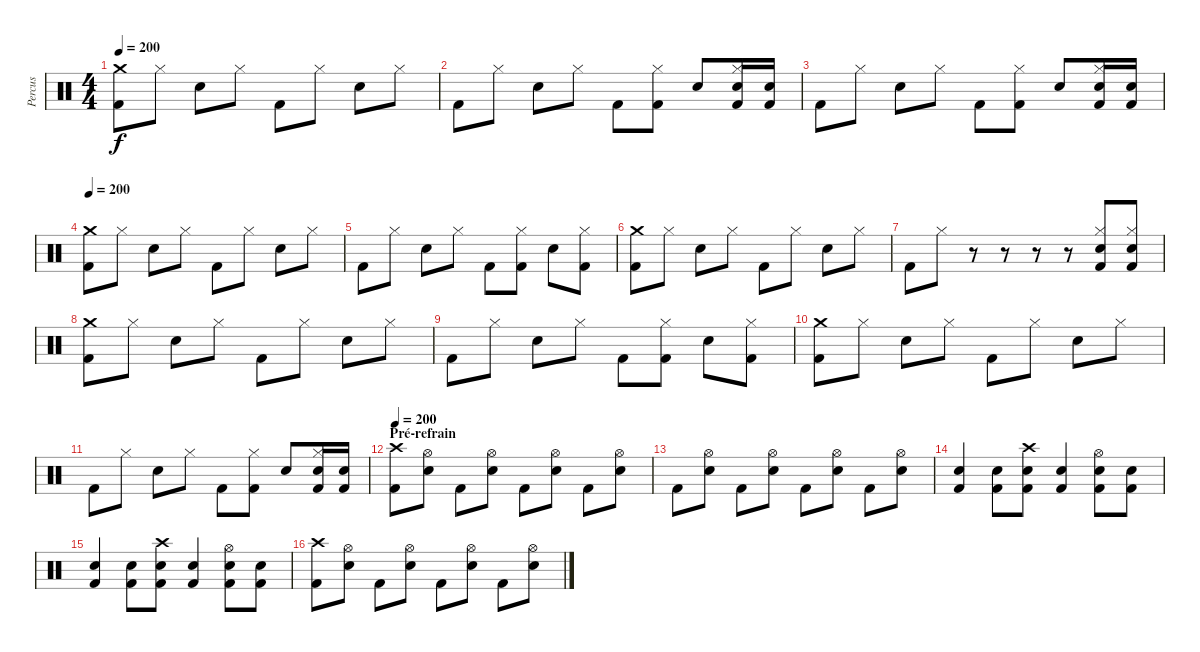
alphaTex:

\track ("Percus" "Percus") {instrument percussion}
\staff {score}
\articulation defaults
\ts (4 4)
\tempo 200
\clef neutral
\ks c
("Crash medium (hit)" "Kick (hit) 2").8{dy f} "Hi-Hat (closed)".8 "Snare (hit) 2".8 "Hi-Hat (closed)".8 "Kick (hit) 2".8 "Hi-Hat (closed)".8 "Snare (hit) 2".8 "Hi-Hat (closed)".8 |
"Kick (hit) 2".8 "Hi-Hat (closed)".8 "Snare (hit) 2".8 "Hi-Hat (closed)".8 "Kick (hit) 2".8 ("Hi-Hat (closed)" "Kick (hit) 2").8 "Snare (hit) 2".8 ("Hi-Hat (closed)" "Snare (hit) 2" "Kick (hit) 2").16 ("Snare (hit) 2" "Kick (hit) 2").16 |
"Kick (hit) 2".8 "Hi-Hat (closed)".8 "Snare (hit) 2".8 "Hi-Hat (closed)".8 "Kick (hit) 2".8 ("Hi-Hat (closed)" "Kick (hit) 2").8 "Snare (hit) 2".8 ("Hi-Hat (closed)" "Snare (hit) 2" "Kick (hit) 2").16 ("Snare (hit) 2" "Kick (hit) 2").16 |
\tempo 200
("Crash medium (hit)" "Kick (hit) 2").8 "Hi-Hat (closed)".8 "Snare (hit) 2".8 "Hi-Hat (closed)".8 "Kick (hit) 2".8 "Hi-Hat (closed)".8 "Snare (hit) 2".8 "Hi-Hat (closed)".8 |
"Kick (hit) 2".8 "Hi-Hat (closed)".8 "Snare (hit) 2".8 "Hi-Hat (closed)".8 "Kick (hit) 2".8 ("Hi-Hat (closed)" "Kick (hit) 2").8 "Snare (hit) 2".8 ("Hi-Hat (closed)" "Kick (hit) 2").8 |
("Crash medium (hit)" "Kick (hit) 2").8 "Hi-Hat (closed)".8 "Snare (hit) 2".8 "Hi-Hat (closed)".8 "Kick (hit) 2".8 "Hi-Hat (closed)".8 "Snare (hit) 2".8 "Hi-Hat (closed)".8 |
"Kick (hit) 2".8 "Hi-Hat (closed)".8 r.8 r.8 r.8 r.8 ("Hi-Hat (closed)" "Snare (hit) 2" "Kick (hit) 2").8 ("Hi-Hat (closed)" "Snare (hit) 2" "Kick (hit) 2").8 |
("Crash medium (hit)" "Kick (hit) 2").8 "Hi-Hat (closed)".8 "Snare (hit) 2".8 "Hi-Hat (closed)".8 "Kick (hit) 2".8 "Hi-Hat (closed)".8 "Snare (hit) 2".8 "Hi-Hat (closed)".8 |
"Kick (hit) 2".8 "Hi-Hat (closed)".8 "Snare (hit) 2".8 "Hi-Hat (closed)".8 "Kick (hit) 2".8 ("Hi-Hat (closed)" "Kick (hit) 2").8 "Snare (hit) 2".8 ("Hi-Hat (closed)" "Kick (hit) 2").8 |
("Crash medium (hit)" "Kick (hit) 2").8 "Hi-Hat (closed)".8 "Snare (hit) 2".8 "Hi-Hat (closed)".8 "Kick (hit) 2".8 "Hi-Hat (closed)".8 "Snare (hit) 2".8 "Hi-Hat (closed)".8 |
"Kick (hit) 2".8 "Hi-Hat (closed)".8 "Snare (hit) 2".8 "Hi-Hat (closed)".8 "Kick (hit) 2".8 ("Hi-Hat (closed)" "Kick (hit) 2").8 "Snare (hit) 2".8 ("Hi-Hat (closed)" "Snare (hit) 2" "Kick (hit) 2").16 ("Snare (hit) 2" "Kick (hit) 2").16 |
\section ("" "Pré-refrain")
\tempo 200
("Crash high (hit)" "Kick (hit) 2").8 ("Hi-Hat (open)" "Snare (hit) 2").8 "Kick (hit) 2".8 ("Hi-Hat (open)" "Snare (hit) 2").8 "Kick (hit) 2".8 ("Hi-Hat (open)" "Snare (hit) 2").8 "Kick (hit) 2".8 ("Hi-Hat (open)" "Snare (hit) 2").8 |
"Kick (hit) 2".8 ("Hi-Hat (open)" "Snare (hit) 2").8 "Kick (hit) 2".8 ("Hi-Hat (open)" "Snare (hit) 2").8 "Kick (hit) 2".8 ("Hi-Hat (open)" "Snare (hit) 2").8 "Kick (hit) 2".8 ("Hi-Hat (open)" "Snare (hit) 2").8 |
("Snare (hit) 2" "Kick (hit) 2").4 ("Snare (hit) 2" "Kick (hit) 2").8 ("Crash high (hit)" "Snare (hit) 2" "Kick (hit) 2").8 ("Snare (hit) 2" "Kick (hit) 2").4 ("Hi-Hat (open)" "Snare (hit) 2" "Kick (hit) 2").8 ("Snare (hit) 2" "Kick (hit) 2").8 |
("Snare (hit) 2" "Kick (hit) 2").4 ("Snare (hit) 2" "Kick (hit) 2").8 ("Crash high (hit)" "Snare (hit) 2" "Kick (hit) 2").8 ("Snare (hit) 2" "Kick (hit) 2").4 ("Hi-Hat (open)" "Snare (hit) 2" "Kick (hit) 2").8 ("Snare (hit) 2" "Kick (hit) 2").8 |
("Crash high (hit)" "Kick (hit) 2").8 ("Hi-Hat (open)" "Snare (hit) 2").8 "Kick (hit) 2".8 ("Hi-Hat (open)" "Snare (hit) 2").8 "Kick (hit) 2".8 ("Hi-Hat (open)" "Snare (hit) 2").8 "Kick (hit) 2".8 ("Hi-Hat (open)" "Snare (hit) 2").8
